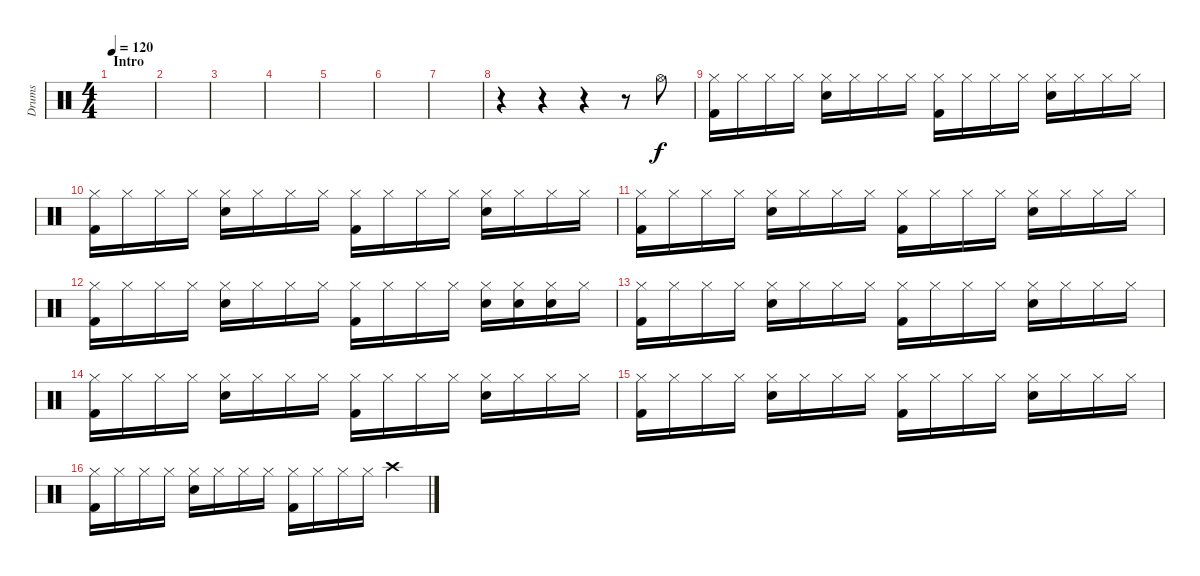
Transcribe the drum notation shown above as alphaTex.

\track ("Drums" "Drums") {instrument percussion}
\staff {score}
\articulation defaults
\ts (4 4)
\section ("" "Intro")
\tempo 120
\clef neutral
\ks c
|
|
|
|
|
|
|
r.4 r.4 r.4 r.8 "Hi-Hat (open)".8 |
("Hi-Hat (closed)" "Kick (hit) 2").16 "Hi-Hat (closed)".16 "Hi-Hat (closed)".16 "Hi-Hat (closed)".16 ("Hi-Hat (closed)" "Snare (hit) 2").16 "Hi-Hat (closed)".16 "Hi-Hat (closed)".16 "Hi-Hat (closed)".16 ("Hi-Hat (closed)" "Kick (hit) 2").16 "Hi-Hat (closed)".16 "Hi-Hat (closed)".16 "Hi-Hat (closed)".16 ("Hi-Hat (closed)" "Snare (hit) 2").16 "Hi-Hat (closed)".16 "Hi-Hat (closed)".16 "Hi-Hat (closed)".16 |
("Hi-Hat (closed)" "Kick (hit) 2").16 "Hi-Hat (closed)".16 "Hi-Hat (closed)".16 "Hi-Hat (closed)".16 ("Hi-Hat (closed)" "Snare (hit) 2").16 "Hi-Hat (closed)".16 "Hi-Hat (closed)".16 "Hi-Hat (closed)".16 ("Hi-Hat (closed)" "Kick (hit) 2").16 "Hi-Hat (closed)".16 "Hi-Hat (closed)".16 "Hi-Hat (closed)".16 ("Hi-Hat (closed)" "Snare (hit) 2").16 "Hi-Hat (closed)".16 "Hi-Hat (closed)".16 "Hi-Hat (closed)".16 |
("Hi-Hat (closed)" "Kick (hit) 2").16 "Hi-Hat (closed)".16 "Hi-Hat (closed)".16 "Hi-Hat (closed)".16 ("Hi-Hat (closed)" "Snare (hit) 2").16 "Hi-Hat (closed)".16 "Hi-Hat (closed)".16 "Hi-Hat (closed)".16 ("Hi-Hat (closed)" "Kick (hit) 2").16 "Hi-Hat (closed)".16 "Hi-Hat (closed)".16 "Hi-Hat (closed)".16 ("Hi-Hat (closed)" "Snare (hit) 2").16 "Hi-Hat (closed)".16 "Hi-Hat (closed)".16 "Hi-Hat (closed)".16 |
("Hi-Hat (closed)" "Kick (hit) 2").16 "Hi-Hat (closed)".16 "Hi-Hat (closed)".16 "Hi-Hat (closed)".16 ("Hi-Hat (closed)" "Snare (hit) 2").16 "Hi-Hat (closed)".16 "Hi-Hat (closed)".16 "Hi-Hat (closed)".16 ("Hi-Hat (closed)" "Kick (hit) 2").16 "Hi-Hat (closed)".16 "Hi-Hat (closed)".16 "Hi-Hat (closed)".16 ("Hi-Hat (closed)" "Snare (hit) 2").16 ("Hi-Hat (closed)" "Snare (hit) 2").16 ("Hi-Hat (closed)" "Snare (hit) 2").16 "Hi-Hat (closed)".16 |
("Hi-Hat (closed)" "Kick (hit) 2").16 "Hi-Hat (closed)".16 "Hi-Hat (closed)".16 "Hi-Hat (closed)".16 ("Hi-Hat (closed)" "Snare (hit) 2").16 "Hi-Hat (closed)".16 "Hi-Hat (closed)".16 "Hi-Hat (closed)".16 ("Hi-Hat (closed)" "Kick (hit) 2").16 "Hi-Hat (closed)".16 "Hi-Hat (closed)".16 "Hi-Hat (closed)".16 ("Hi-Hat (closed)" "Snare (hit) 2").16 "Hi-Hat (closed)".16 "Hi-Hat (closed)".16 "Hi-Hat (closed)".16 |
("Hi-Hat (closed)" "Kick (hit) 2").16 "Hi-Hat (closed)".16 "Hi-Hat (closed)".16 "Hi-Hat (closed)".16 ("Hi-Hat (closed)" "Snare (hit) 2").16 "Hi-Hat (closed)".16 "Hi-Hat (closed)".16 "Hi-Hat (closed)".16 ("Hi-Hat (closed)" "Kick (hit) 2").16 "Hi-Hat (closed)".16 "Hi-Hat (closed)".16 "Hi-Hat (closed)".16 ("Hi-Hat (closed)" "Snare (hit) 2").16 "Hi-Hat (closed)".16 "Hi-Hat (closed)".16 "Hi-Hat (closed)".16 |
("Hi-Hat (closed)" "Kick (hit) 2").16 "Hi-Hat (closed)".16 "Hi-Hat (closed)".16 "Hi-Hat (closed)".16 ("Hi-Hat (closed)" "Snare (hit) 2").16 "Hi-Hat (closed)".16 "Hi-Hat (closed)".16 "Hi-Hat (closed)".16 ("Hi-Hat (closed)" "Kick (hit) 2").16 "Hi-Hat (closed)".16 "Hi-Hat (closed)".16 "Hi-Hat (closed)".16 ("Hi-Hat (closed)" "Snare (hit) 2").16 "Hi-Hat (closed)".16 "Hi-Hat (closed)".16 "Hi-Hat (closed)".16 |
("Hi-Hat (closed)" "Kick (hit) 2").16 "Hi-Hat (closed)".16 "Hi-Hat (closed)".16 "Hi-Hat (closed)".16 ("Hi-Hat (closed)" "Snare (hit) 2").16 "Hi-Hat (closed)".16 "Hi-Hat (closed)".16 "Hi-Hat (closed)".16 ("Hi-Hat (closed)" "Kick (hit) 2").16 "Hi-Hat (closed)".16 "Hi-Hat (closed)".16 "Hi-Hat (closed)".16 "Crash high (hit)".4
